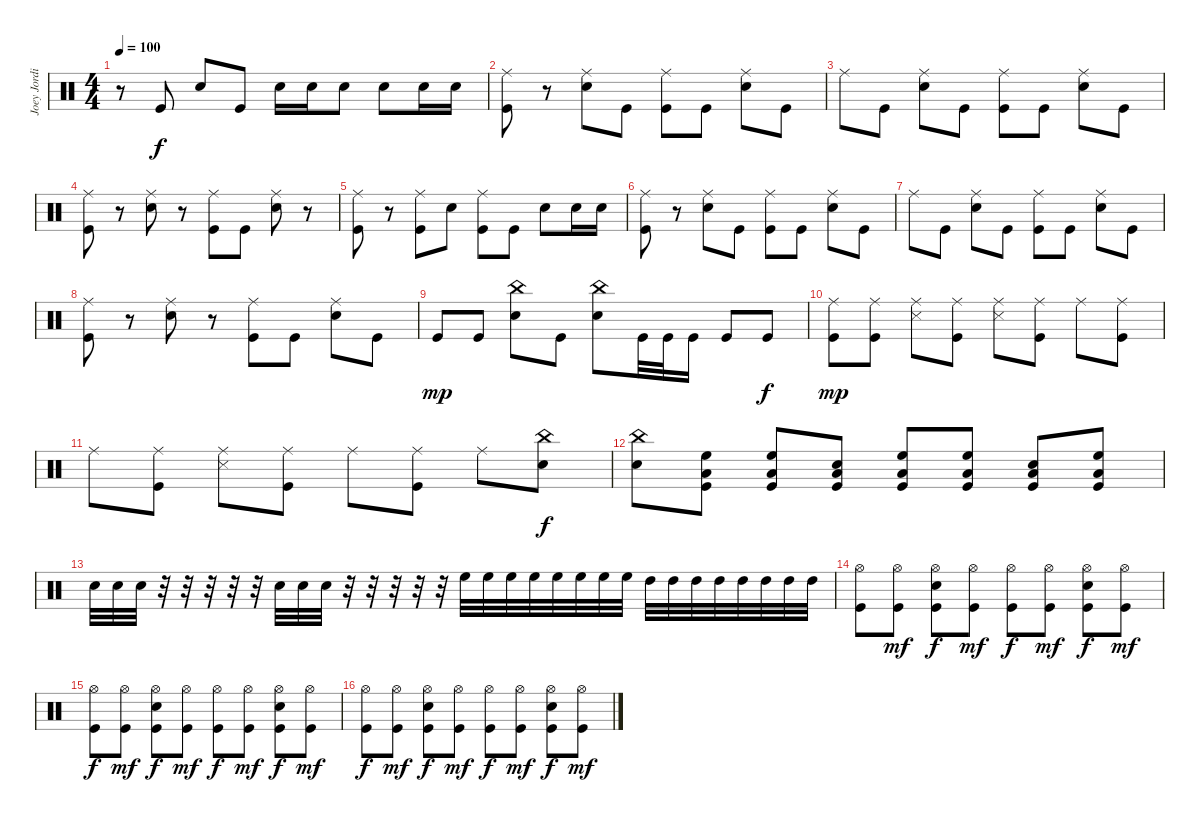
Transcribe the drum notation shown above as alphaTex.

\track ("Joey Jordison" "Joey Jordi") {instrument percussion}
\staff {score}
\articulation defaults
\ts (4 4)
\tempo 100
\clef neutral
\ks c
r.8{dy f} "Kick (hit)".8 "Snare (hit) 2".8 "Kick (hit)".8 "Snare (hit) 2".16 "Snare (hit) 2".16 "Snare (hit) 2".8 "Snare (hit) 2".8 "Snare (hit) 2".16 "Snare (hit) 2".16 |
("Kick (hit)" "Ride (middle)").8 r.8 ("Snare (hit) 2" "Ride (middle)").8 "Kick (hit)".8 ("Kick (hit)" "Ride (middle)").8 "Kick (hit)".8 ("Snare (hit) 2" "Ride (middle)").8 "Kick (hit)".8 |
"Ride (middle)".8 "Kick (hit)".8 ("Snare (hit) 2" "Ride (middle)").8 "Kick (hit)".8 ("Kick (hit)" "Ride (middle)").8 "Kick (hit)".8 ("Snare (hit) 2" "Ride (middle)").8 "Kick (hit)".8 |
("Kick (hit)" "Ride (middle)").8 r.8 ("Snare (hit) 2" "Ride (middle)").8 r.8 ("Kick (hit)" "Ride (middle)").8 "Kick (hit)".8 ("Snare (hit) 2" "Ride (middle)").8 r.8 |
("Kick (hit)" "Ride (middle)").8 r.8 ("Kick (hit)" "Ride (middle)").8 "Snare (hit) 2".8 ("Kick (hit)" "Ride (middle)").8 "Kick (hit)".8 "Snare (hit) 2".8 "Snare (hit) 2".16 "Snare (hit) 2".16 |
("Kick (hit)" "Ride (middle)").8 r.8 ("Snare (hit) 2" "Ride (middle)").8 "Kick (hit)".8 ("Kick (hit)" "Ride (middle)").8 "Kick (hit)".8 ("Snare (hit) 2" "Ride (middle)").8 "Kick (hit)".8 |
"Ride (middle)".8 "Kick (hit)".8 ("Snare (hit) 2" "Ride (middle)").8 "Kick (hit)".8 ("Kick (hit)" "Ride (middle)").8 "Kick (hit)".8 ("Snare (hit) 2" "Ride (middle)").8 "Kick (hit)".8 |
("Kick (hit)" "Ride (middle)").8 r.8 ("Snare (hit) 2" "Ride (middle)").8 r.8 ("Kick (hit)" "Ride (middle)").8 "Kick (hit)".8 ("Snare (hit) 2" "Ride (middle)").8 "Kick (hit)".8 |
"Kick (hit)".8{dy mp} "Kick (hit)".8 ("Snare (hit) 2" "China (hit)").8 "Kick (hit)".8 ("Snare (hit) 2" "China (hit)").8 "Kick (hit)".32 "Kick (hit)".32 "Kick (hit)".16 "Kick (hit)".8 "Kick (hit)".8{dy f} |
("Kick (hit)" "Ride (middle)").8{dy mp} ("Kick (hit)" "Ride (middle)").8 ("Snare (side stick) 3" "Ride (middle)").8 ("Kick (hit)" "Ride (middle)").8 ("Snare (side stick) 3" "Ride (middle)").8 ("Kick (hit)" "Ride (middle)").8 "Ride (middle)".8 ("Kick (hit)" "Ride (middle)").8 |
"Ride (middle)".8 ("Kick (hit)" "Ride (middle)").8 ("Snare (side stick) 3" "Ride (middle)").8 ("Kick (hit)" "Ride (middle)").8 "Ride (middle)".8 ("Kick (hit)" "Ride (middle)").8 "Ride (middle)".8 ("Snare (hit) 2" "China (hit)").8{dy f} |
("Snare (hit) 2" "China (hit)").8 ("High Floor Tom (hit)" "Low Floor Tom (hit)" "Kick (hit)").8 ("High Floor Tom (hit)" "Low Floor Tom (hit)" "Kick (hit)").8 ("Snare (hit) 2" "Low Floor Tom (hit)" "Kick (hit)").8 ("High Floor Tom (hit)" "Low Floor Tom (hit)" "Kick (hit)").8 ("High Floor Tom (hit)" "Low Floor Tom (hit)" "Kick (hit)").8 ("Snare (hit) 2" "Low Floor Tom (hit)" "Kick (hit)").8 ("High Floor Tom (hit)" "Low Floor Tom (hit)" "Kick (hit)").8 |
"Snare (hit) 2".32 "Snare (hit) 2".32 "Snare (hit) 2".32 r.32 r.32 r.32 r.32 r.32 "Snare (hit) 2".32 "Snare (hit) 2".32 "Snare (hit) 2".32 r.32 r.32 r.32 r.32 r.32 "High Floor Tom (hit)".32 "High Floor Tom (hit)".32 "High Floor Tom (hit)".32 "High Floor Tom (hit)".32 "High Floor Tom (hit)".32 "High Floor Tom (hit)".32 "High Floor Tom (hit)".32 "High Floor Tom (hit)".32 "High Tom (hit)".32 "High Tom (hit)".32 "High Tom (hit)".32 "High Tom (hit)".32 "High Tom (hit)".32 "High Tom (hit)".32 "High Tom (hit)".32 "High Tom (hit)".32 |
("Hi-Hat (open)" "Kick (hit)").8 ("Hi-Hat (open)" "Kick (hit)").8{dy mf} ("Hi-Hat (open)" "Kick (hit)" "Snare (hit) 2").8{dy f} ("Hi-Hat (open)" "Kick (hit)").8{dy mf} ("Hi-Hat (open)" "Kick (hit)").8{dy f} ("Hi-Hat (open)" "Kick (hit)").8{dy mf} ("Hi-Hat (open)" "Kick (hit)" "Snare (hit) 2").8{dy f} ("Hi-Hat (open)" "Kick (hit)").8{dy mf} |
("Hi-Hat (open)" "Kick (hit)").8{dy f} ("Hi-Hat (open)" "Kick (hit)").8{dy mf} ("Hi-Hat (open)" "Kick (hit)" "Snare (hit) 2").8{dy f} ("Hi-Hat (open)" "Kick (hit)").8{dy mf} ("Hi-Hat (open)" "Kick (hit)").8{dy f} ("Hi-Hat (open)" "Kick (hit)").8{dy mf} ("Hi-Hat (open)" "Kick (hit)" "Snare (hit) 2").8{dy f} ("Hi-Hat (open)" "Kick (hit)").8{dy mf} |
("Hi-Hat (open)" "Kick (hit)").8{dy f} ("Hi-Hat (open)" "Kick (hit)").8{dy mf} ("Hi-Hat (open)" "Kick (hit)" "Snare (hit) 2").8{dy f} ("Hi-Hat (open)" "Kick (hit)").8{dy mf} ("Hi-Hat (open)" "Kick (hit)").8{dy f} ("Hi-Hat (open)" "Kick (hit)").8{dy mf} ("Hi-Hat (open)" "Kick (hit)" "Snare (hit) 2").8{dy f} ("Hi-Hat (open)" "Kick (hit)").8{dy mf}
